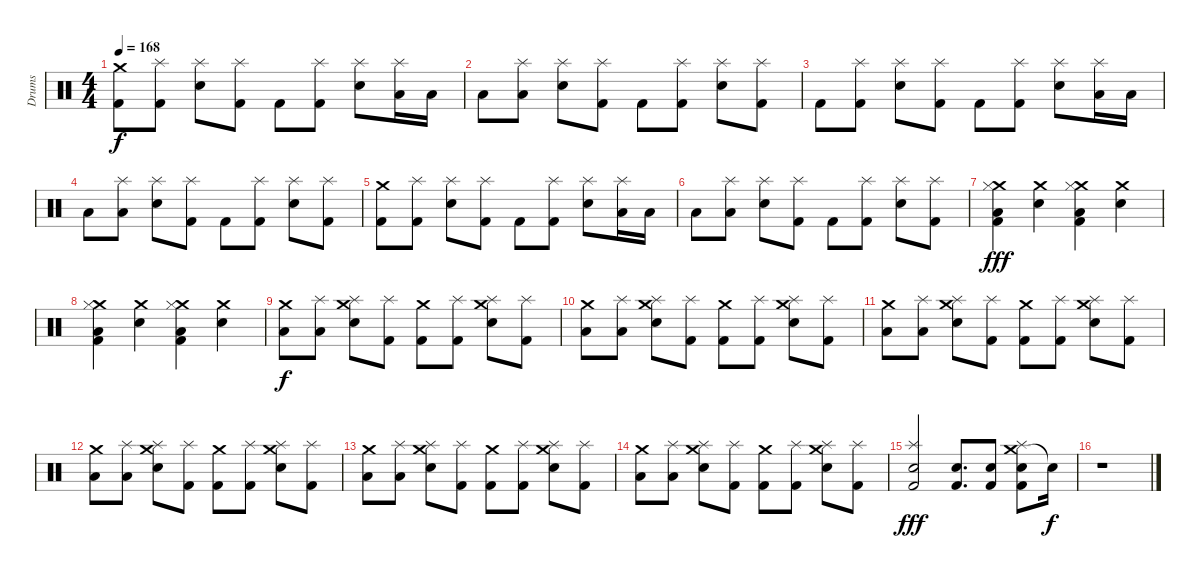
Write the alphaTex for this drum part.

\track ("Drums" "Drums") {instrument percussion}
\staff {score}
\articulation defaults
\ts (4 4)
\tempo 168
\clef neutral
\ks c
("Crash medium (hit)" "Kick (hit) 2").8{dy f} ("Splash (hit)" "Kick (hit) 2").8 ("Splash (hit)" "Electric Snare (hit)").8 ("Splash (hit)" "Kick (hit) 2").8 "Kick (hit) 2".8 ("Splash (hit)" "Kick (hit) 2").8 ("Splash (hit)" "Electric Snare (hit)").8 ("Splash (hit)" "Low Floor Tom (hit)").16 "Low Floor Tom (hit)".16 |
"Low Floor Tom (hit)".8 ("Splash (hit)" "Low Floor Tom (hit)").8 ("Splash (hit)" "Electric Snare (hit)").8 ("Splash (hit)" "Kick (hit) 2").8 "Kick (hit) 2".8 ("Splash (hit)" "Kick (hit) 2").8 ("Splash (hit)" "Electric Snare (hit)").8 ("Splash (hit)" "Kick (hit) 2").8 |
"Kick (hit) 2".8 ("Splash (hit)" "Kick (hit) 2").8 ("Splash (hit)" "Electric Snare (hit)").8 ("Splash (hit)" "Kick (hit) 2").8 "Kick (hit) 2".8 ("Splash (hit)" "Kick (hit) 2").8 ("Splash (hit)" "Electric Snare (hit)").8 ("Splash (hit)" "Low Floor Tom (hit)").16 "Low Floor Tom (hit)".16 |
"Low Floor Tom (hit)".8 ("Splash (hit)" "Low Floor Tom (hit)").8 ("Splash (hit)" "Electric Snare (hit)").8 ("Splash (hit)" "Kick (hit) 2").8 "Kick (hit) 2".8 ("Splash (hit)" "Kick (hit) 2").8 ("Splash (hit)" "Electric Snare (hit)").8 ("Splash (hit)" "Kick (hit) 2").8 |
("Crash medium (hit)" "Kick (hit) 2").8 ("Splash (hit)" "Kick (hit) 2").8 ("Splash (hit)" "Electric Snare (hit)").8 ("Splash (hit)" "Kick (hit) 2").8 "Kick (hit) 2".8 ("Splash (hit)" "Kick (hit) 2").8 ("Splash (hit)" "Electric Snare (hit)").8 ("Splash (hit)" "Low Floor Tom (hit)").16 "Low Floor Tom (hit)".16 |
"Low Floor Tom (hit)".8 ("Splash (hit)" "Low Floor Tom (hit)").8 ("Splash (hit)" "Electric Snare (hit)").8 ("Splash (hit)" "Kick (hit) 2").8 "Kick (hit) 2".8 ("Splash (hit)" "Kick (hit) 2").8 ("Splash (hit)" "Electric Snare (hit)").8 ("Splash (hit)" "Kick (hit) 2").8 |
("Crash medium (hit)" "Hi-Hat (closed)" "Low Floor Tom (hit)" "Kick (hit) 2").4{dy fff} ("Crash medium (hit)" "Electric Snare (hit)").4 ("Crash medium (hit)" "Hi-Hat (closed)" "Low Floor Tom (hit)" "Kick (hit) 2").4 ("Crash medium (hit)" "Electric Snare (hit)").4 |
("Crash medium (hit)" "Hi-Hat (closed)" "Low Floor Tom (hit)" "Kick (hit) 2").4 ("Crash medium (hit)" "Electric Snare (hit)").4 ("Crash medium (hit)" "Hi-Hat (closed)" "Low Floor Tom (hit)" "Kick (hit) 2").4 ("Crash medium (hit)" "Electric Snare (hit)").4 |
("Crash medium (hit)" "Low Floor Tom (hit)").8{dy f} ("Splash (hit)" "Low Floor Tom (hit)").8 ("Crash medium (hit)" "Splash (hit)" "Electric Snare (hit)").8 ("Splash (hit)" "Kick (hit) 2").8 ("Crash medium (hit)" "Kick (hit) 2").8 ("Splash (hit)" "Kick (hit) 2").8 ("Crash medium (hit)" "Splash (hit)" "Electric Snare (hit)").8 ("Splash (hit)" "Kick (hit) 2").8 |
("Crash medium (hit)" "Low Floor Tom (hit)").8 ("Splash (hit)" "Low Floor Tom (hit)").8 ("Crash medium (hit)" "Splash (hit)" "Electric Snare (hit)").8 ("Splash (hit)" "Kick (hit) 2").8 ("Crash medium (hit)" "Kick (hit) 2").8 ("Splash (hit)" "Kick (hit) 2").8 ("Crash medium (hit)" "Splash (hit)" "Electric Snare (hit)").8 ("Splash (hit)" "Kick (hit) 2").8 |
("Crash medium (hit)" "Low Floor Tom (hit)").8 ("Splash (hit)" "Low Floor Tom (hit)").8 ("Crash medium (hit)" "Splash (hit)" "Electric Snare (hit)").8 ("Splash (hit)" "Kick (hit) 2").8 ("Crash medium (hit)" "Kick (hit) 2").8 ("Splash (hit)" "Kick (hit) 2").8 ("Crash medium (hit)" "Splash (hit)" "Electric Snare (hit)").8 ("Splash (hit)" "Kick (hit) 2").8 |
("Crash medium (hit)" "Low Floor Tom (hit)").8 ("Splash (hit)" "Low Floor Tom (hit)").8 ("Crash medium (hit)" "Splash (hit)" "Electric Snare (hit)").8 ("Splash (hit)" "Kick (hit) 2").8 ("Crash medium (hit)" "Kick (hit) 2").8 ("Splash (hit)" "Kick (hit) 2").8 ("Crash medium (hit)" "Splash (hit)" "Electric Snare (hit)").8 ("Splash (hit)" "Kick (hit) 2").8 |
("Crash medium (hit)" "Low Floor Tom (hit)").8 ("Splash (hit)" "Low Floor Tom (hit)").8 ("Crash medium (hit)" "Splash (hit)" "Electric Snare (hit)").8 ("Splash (hit)" "Kick (hit) 2").8 ("Crash medium (hit)" "Kick (hit) 2").8 ("Splash (hit)" "Kick (hit) 2").8 ("Crash medium (hit)" "Splash (hit)" "Electric Snare (hit)").8 ("Splash (hit)" "Kick (hit) 2").8 |
("Crash medium (hit)" "Low Floor Tom (hit)").8 ("Splash (hit)" "Low Floor Tom (hit)").8 ("Crash medium (hit)" "Splash (hit)" "Electric Snare (hit)").8 ("Splash (hit)" "Kick (hit) 2").8 ("Crash medium (hit)" "Kick (hit) 2").8 ("Splash (hit)" "Kick (hit) 2").8 ("Crash medium (hit)" "Splash (hit)" "Electric Snare (hit)").8 ("Splash (hit)" "Kick (hit) 2").8 |
("Splash (hit)" "Electric Snare (hit)" "Kick (hit) 2").2{dy fff} ("Electric Snare (hit)" "Kick (hit) 2").8{d} ("Electric Snare (hit)" "Kick (hit) 2").8 ("Crash medium (hit)" "Splash (hit)" "Electric Snare (hit)" "Kick (hit) 2").8 "Snare (hit)"{t}.16{dy f} |
r.1
